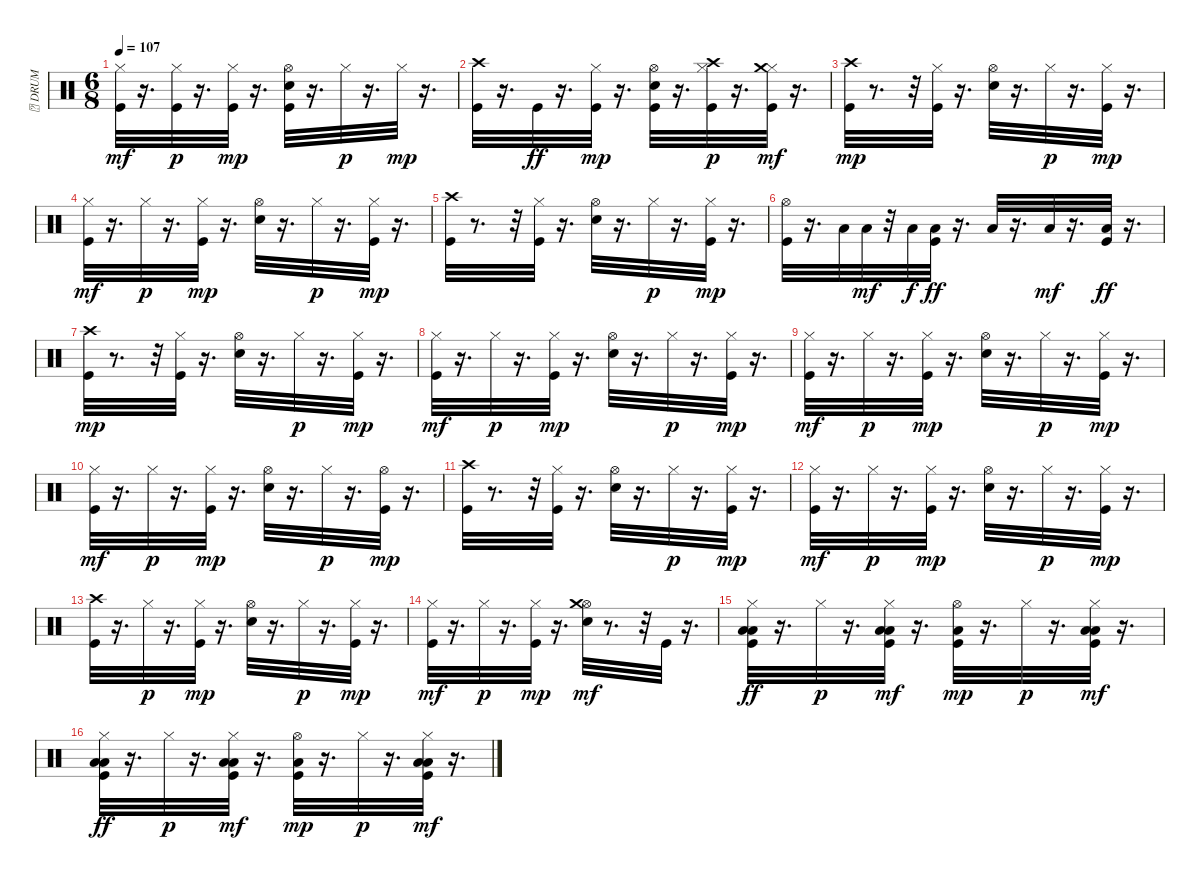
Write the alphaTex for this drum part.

\track ("\t DRUM" "\t DRUM") {instrument percussion}
\staff {score}
\articulation defaults
\ts (6 8)
\tempo 107
\clef neutral
\ks c
("Kick (hit)" "Hi-Hat (closed)").32{dy mf} r.16{d} ("Kick (hit)" "Hi-Hat (closed)").32{dy p} r.16{d} ("Kick (hit)" "Hi-Hat (closed)").32{dy mp} r.16{d} ("Kick (hit)" "Electric Snare (hit)" "Hi-Hat (open)").32 r.16{d} "Hi-Hat (closed)".32{dy p} r.16{d} "Hi-Hat (closed)".32{dy mp} r.16{d} |
("Kick (hit)" "Crash high (hit)").32 r.16{d} "Kick (hit)".32{dy ff} r.16{d} ("Kick (hit)" "Hi-Hat (closed)").32{dy mp} r.16{d} ("Kick (hit)" "Electric Snare (hit)" "Hi-Hat (open)").32 r.16{d} ("Kick (hit)" "Hi-Hat (closed)" "Crash high (hit)").32{dy p} r.16{d} ("Kick (hit)" "Hi-Hat (closed)" "Crash medium (hit)").32{dy mf} r.16{d} |
("Kick (hit)" "Crash high (hit)").32{dy mp} r.8{d} r.32 ("Kick (hit)" "Hi-Hat (closed)").32 r.16{d} ("Electric Snare (hit)" "Hi-Hat (open)").32 r.16{d} "Hi-Hat (closed)".32{dy p} r.16{d} ("Kick (hit)" "Hi-Hat (closed)").32{dy mp} r.16{d} |
("Kick (hit)" "Hi-Hat (closed)").32{dy mf} r.16{d} "Hi-Hat (closed)".32{dy p} r.16{d} ("Kick (hit)" "Hi-Hat (closed)").32{dy mp} r.16{d} ("Electric Snare (hit)" "Hi-Hat (open)").32 r.16{d} "Hi-Hat (closed)".32{dy p} r.16{d} ("Kick (hit)" "Hi-Hat (closed)").32{dy mp} r.16{d} |
("Kick (hit)" "Crash high (hit)").32 r.8{d} r.32 ("Kick (hit)" "Hi-Hat (closed)").32 r.16{d} ("Electric Snare (hit)" "Hi-Hat (open)").32 r.16{d} "Hi-Hat (closed)".32{dy p} r.16{d} ("Kick (hit)" "Hi-Hat (closed)").32{dy mp} r.16{d} |
("Kick (hit)" "Hi-Hat (open)").32 r.16{d} "Low Tom (hit)".32 "Low Tom (hit)".32{dy mf} r.32 "Low Tom (hit)".32{dy f} ("Kick (hit)" "Low Tom (hit)").32{dy ff} r.16{d} "Low Floor Tom (hit)".32 r.16{d} "Low Floor Tom (hit)".32{dy mf} r.16{d} ("Kick (hit)" "Low Floor Tom (hit)").32{dy ff} r.16{d} |
("Kick (hit)" "Crash high (hit)").32{dy mp} r.8{d} r.32 ("Kick (hit)" "Hi-Hat (closed)").32 r.16{d} ("Electric Snare (hit)" "Hi-Hat (open)").32 r.16{d} "Hi-Hat (closed)".32{dy p} r.16{d} ("Kick (hit)" "Hi-Hat (closed)").32{dy mp} r.16{d} |
("Kick (hit)" "Hi-Hat (closed)").32{dy mf} r.16{d} "Hi-Hat (closed)".32{dy p} r.16{d} ("Kick (hit)" "Hi-Hat (closed)").32{dy mp} r.16{d} ("Electric Snare (hit)" "Hi-Hat (open)").32 r.16{d} "Hi-Hat (closed)".32{dy p} r.16{d} ("Kick (hit)" "Hi-Hat (closed)").32{dy mp} r.16{d} |
("Kick (hit)" "Hi-Hat (closed)").32{dy mf} r.16{d} "Hi-Hat (closed)".32{dy p} r.16{d} ("Kick (hit)" "Hi-Hat (closed)").32{dy mp} r.16{d} ("Electric Snare (hit)" "Hi-Hat (open)").32 r.16{d} "Hi-Hat (closed)".32{dy p} r.16{d} ("Kick (hit)" "Hi-Hat (closed)").32{dy mp} r.16{d} |
("Kick (hit)" "Hi-Hat (closed)").32{dy mf} r.16{d} "Hi-Hat (closed)".32{dy p} r.16{d} ("Kick (hit)" "Hi-Hat (closed)").32{dy mp} r.16{d} ("Electric Snare (hit)" "Hi-Hat (open)").32 r.16{d} "Hi-Hat (closed)".32{dy p} r.16{d} ("Kick (hit)" "Hi-Hat (open)").32{dy mp} r.16{d} |
("Kick (hit)" "Crash high (hit)").32 r.8{d} r.32 ("Kick (hit)" "Hi-Hat (closed)").32 r.16{d} ("Electric Snare (hit)" "Hi-Hat (open)").32 r.16{d} "Hi-Hat (closed)".32{dy p} r.16{d} ("Kick (hit)" "Hi-Hat (closed)").32{dy mp} r.16{d} |
("Kick (hit)" "Hi-Hat (closed)").32{dy mf} r.16{d} "Hi-Hat (closed)".32{dy p} r.16{d} ("Kick (hit)" "Hi-Hat (closed)").32{dy mp} r.16{d} ("Electric Snare (hit)" "Hi-Hat (open)").32 r.16{d} "Hi-Hat (closed)".32{dy p} r.16{d} ("Kick (hit)" "Hi-Hat (closed)").32{dy mp} r.16{d} |
("Kick (hit)" "Crash high (hit)").32 r.16{d} "Hi-Hat (closed)".32{dy p} r.16{d} ("Kick (hit)" "Hi-Hat (closed)").32{dy mp} r.16{d} ("Electric Snare (hit)" "Hi-Hat (open)").32 r.16{d} "Hi-Hat (closed)".32{dy p} r.16{d} ("Kick (hit)" "Hi-Hat (closed)").32{dy mp} r.16{d} |
("Kick (hit)" "Hi-Hat (closed)").32{dy mf} r.16{d} "Hi-Hat (closed)".32{dy p} r.16{d} ("Kick (hit)" "Hi-Hat (closed)").32{dy mp} r.16{d} ("Electric Snare (hit)" "Hi-Hat (open)" "Crash medium (hit)").32{dy mf} r.8{d} r.32 "Kick (hit)".32 r.16{d} |
("Kick (hit)" "Low Floor Tom (hit)" "Hi-Hat (closed)" "Low Tom (hit)").32{dy ff} r.16{d} "Hi-Hat (closed)".32{dy p} r.16{d} ("Kick (hit)" "Low Floor Tom (hit)" "Hi-Hat (closed)" "Low Tom (hit)").32{dy mf} r.16{d} ("Kick (hit)" "Low Floor Tom (hit)" "Hi-Hat (open)").32{dy mp} r.16{d} "Hi-Hat (closed)".32{dy p} r.16{d} ("Kick (hit)" "Low Floor Tom (hit)" "Hi-Hat (closed)" "Low Tom (hit)").32{dy mf} r.16{d} |
("Kick (hit)" "Low Floor Tom (hit)" "Hi-Hat (closed)" "Low Tom (hit)").32{dy ff} r.16{d} "Hi-Hat (closed)".32{dy p} r.16{d} ("Kick (hit)" "Low Floor Tom (hit)" "Hi-Hat (closed)" "Low Tom (hit)").32{dy mf} r.16{d} ("Kick (hit)" "Low Floor Tom (hit)" "Hi-Hat (open)").32{dy mp} r.16{d} "Hi-Hat (closed)".32{dy p} r.16{d} ("Kick (hit)" "Low Floor Tom (hit)" "Hi-Hat (closed)" "Low Tom (hit)").32{dy mf} r.16{d}
